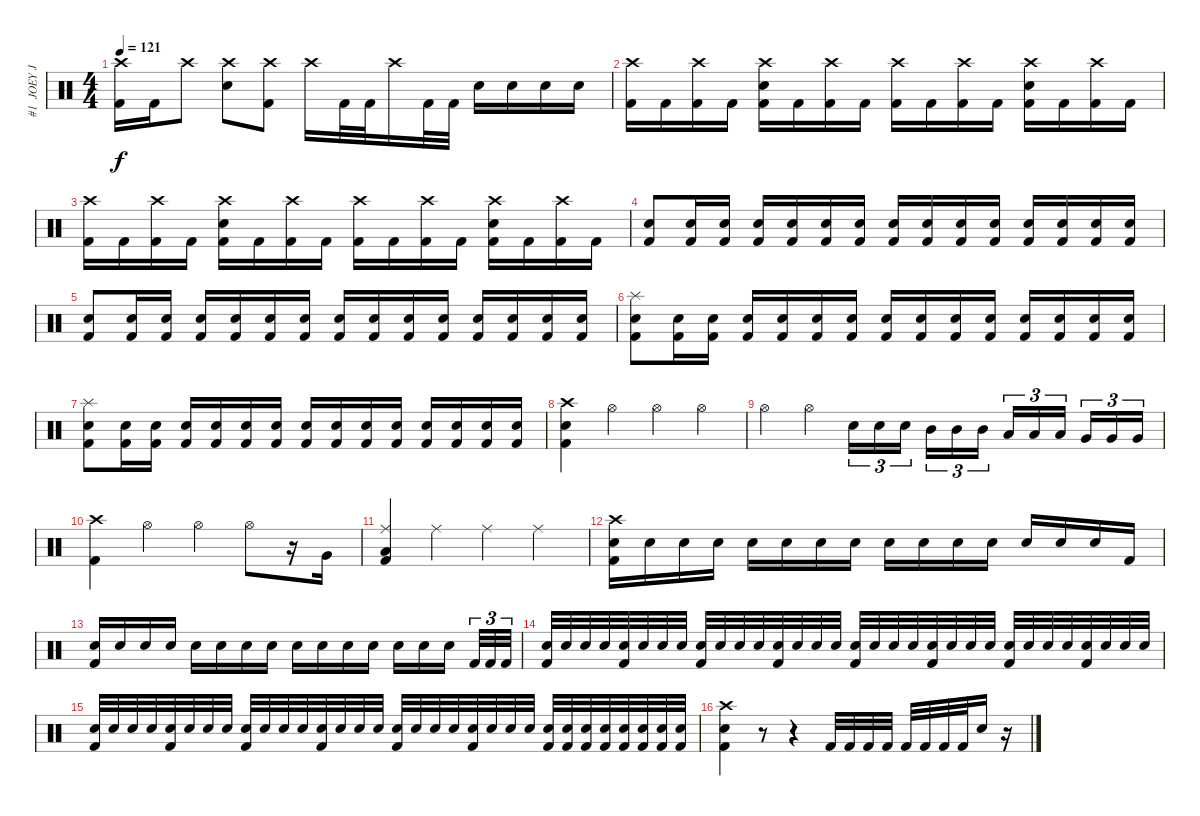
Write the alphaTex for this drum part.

\track ("#1  JOEY JORDISON" "#1  JOEY J") {instrument percussion}
\staff {score}
\articulation defaults
\ts (4 4)
\tempo 121
\clef neutral
\ks c
("Crash high (hit)" "Kick (hit) 2").16{dy f} "Kick (hit) 2".16 "Crash high (hit)".8 ("Crash high (hit)" "Electric Snare (hit)").8 ("Crash high (hit)" "Kick (hit) 2").8 "Crash high (hit)".16 "Kick (hit) 2".32 "Kick (hit) 2".32 "Crash high (hit)".16 "Kick (hit) 2".32 "Kick (hit) 2".32 "Electric Snare (hit)".16 "Electric Snare (hit)".16 "Electric Snare (hit)".16 "Electric Snare (hit)".16 |
("Crash high (hit)" "Kick (hit) 2").16 "Kick (hit) 2".16 ("Crash high (hit)" "Kick (hit) 2").16 "Kick (hit) 2".16 ("Crash high (hit)" "Electric Snare (hit)" "Kick (hit) 2").16 "Kick (hit) 2".16 ("Crash high (hit)" "Kick (hit) 2").16 "Kick (hit) 2".16 ("Crash high (hit)" "Kick (hit) 2").16 "Kick (hit) 2".16 ("Crash high (hit)" "Kick (hit) 2").16 "Kick (hit) 2".16 ("Crash high (hit)" "Electric Snare (hit)" "Kick (hit) 2").16 "Kick (hit) 2".16 ("Crash high (hit)" "Kick (hit) 2").16 "Kick (hit) 2".16 |
("Crash high (hit)" "Kick (hit) 2").16 "Kick (hit) 2".16 ("Crash high (hit)" "Kick (hit) 2").16 "Kick (hit) 2".16 ("Crash high (hit)" "Electric Snare (hit)" "Kick (hit) 2").16 "Kick (hit) 2".16 ("Crash high (hit)" "Kick (hit) 2").16 "Kick (hit) 2".16 ("Crash high (hit)" "Kick (hit) 2").16 "Kick (hit) 2".16 ("Crash high (hit)" "Kick (hit) 2").16 "Kick (hit) 2".16 ("Crash high (hit)" "Electric Snare (hit)" "Kick (hit) 2").16 "Kick (hit) 2".16 ("Crash high (hit)" "Kick (hit) 2").16 "Kick (hit) 2".16 |
("Electric Snare (hit)" "Kick (hit) 2").8 ("Electric Snare (hit)" "Kick (hit) 2").16 ("Electric Snare (hit)" "Kick (hit) 2").16 ("Electric Snare (hit)" "Kick (hit) 2").16 ("Electric Snare (hit)" "Kick (hit) 2").16 ("Electric Snare (hit)" "Kick (hit) 2").16 ("Electric Snare (hit)" "Kick (hit) 2").16 ("Electric Snare (hit)" "Kick (hit) 2").16 ("Electric Snare (hit)" "Kick (hit) 2").16 ("Electric Snare (hit)" "Kick (hit) 2").16 ("Electric Snare (hit)" "Kick (hit) 2").16 ("Electric Snare (hit)" "Kick (hit) 2").16 ("Electric Snare (hit)" "Kick (hit) 2").16 ("Electric Snare (hit)" "Kick (hit) 2").16 ("Electric Snare (hit)" "Kick (hit) 2").16 |
("Electric Snare (hit)" "Kick (hit) 2").8 ("Electric Snare (hit)" "Kick (hit) 2").16 ("Electric Snare (hit)" "Kick (hit) 2").16 ("Electric Snare (hit)" "Kick (hit) 2").16 ("Electric Snare (hit)" "Kick (hit) 2").16 ("Electric Snare (hit)" "Kick (hit) 2").16 ("Electric Snare (hit)" "Kick (hit) 2").16 ("Electric Snare (hit)" "Kick (hit) 2").16 ("Electric Snare (hit)" "Kick (hit) 2").16 ("Electric Snare (hit)" "Kick (hit) 2").16 ("Electric Snare (hit)" "Kick (hit) 2").16 ("Electric Snare (hit)" "Kick (hit) 2").16 ("Electric Snare (hit)" "Kick (hit) 2").16 ("Electric Snare (hit)" "Kick (hit) 2").16 ("Electric Snare (hit)" "Kick (hit) 2").16 |
("Splash (hit)" "Electric Snare (hit)" "Kick (hit) 2").8 ("Electric Snare (hit)" "Kick (hit) 2").16 ("Electric Snare (hit)" "Kick (hit) 2").16 ("Electric Snare (hit)" "Kick (hit) 2").16 ("Electric Snare (hit)" "Kick (hit) 2").16 ("Electric Snare (hit)" "Kick (hit) 2").16 ("Electric Snare (hit)" "Kick (hit) 2").16 ("Electric Snare (hit)" "Kick (hit) 2").16 ("Electric Snare (hit)" "Kick (hit) 2").16 ("Electric Snare (hit)" "Kick (hit) 2").16 ("Electric Snare (hit)" "Kick (hit) 2").16 ("Electric Snare (hit)" "Kick (hit) 2").16 ("Electric Snare (hit)" "Kick (hit) 2").16 ("Electric Snare (hit)" "Kick (hit) 2").16 ("Electric Snare (hit)" "Kick (hit) 2").16 |
("Splash (hit)" "Electric Snare (hit)" "Kick (hit) 2").8 ("Electric Snare (hit)" "Kick (hit) 2").16 ("Electric Snare (hit)" "Kick (hit) 2").16 ("Electric Snare (hit)" "Kick (hit) 2").16 ("Electric Snare (hit)" "Kick (hit) 2").16 ("Electric Snare (hit)" "Kick (hit) 2").16 ("Electric Snare (hit)" "Kick (hit) 2").16 ("Electric Snare (hit)" "Kick (hit) 2").16 ("Electric Snare (hit)" "Kick (hit) 2").16 ("Electric Snare (hit)" "Kick (hit) 2").16 ("Electric Snare (hit)" "Kick (hit) 2").16 ("Electric Snare (hit)" "Kick (hit) 2").16 ("Electric Snare (hit)" "Kick (hit) 2").16 ("Electric Snare (hit)" "Kick (hit) 2").16 ("Electric Snare (hit)" "Kick (hit) 2").16 |
\section ("" "")
("Crash high (hit)" "Electric Snare (hit)" "Kick (hit) 2").4 "Hi-Hat (open)".4 "Hi-Hat (open)".4 "Hi-Hat (open)".4 |
"Hi-Hat (open)".4 "Hi-Hat (open)".4 "Electric Snare (hit)".16{tu (3 2)} "Electric Snare (hit)".16{tu (3 2)} "Electric Snare (hit)".16{tu (3 2)} "Mid Tom (hit)".16{tu (3 2)} "Mid Tom (hit)".16{tu (3 2)} "Mid Tom (hit)".16{tu (3 2)} "Low Tom (hit)".16{tu (3 2)} "Low Tom (hit)".16{tu (3 2)} "Low Tom (hit)".16{tu (3 2)} "Very Low Tom (hit)".16{tu (3 2)} "Very Low Tom (hit)".16{tu (3 2)} "Very Low Tom (hit)".16{tu (3 2)} |
("Crash high (hit)" "Kick (hit) 2").4 "Hi-Hat (open)".4 "Hi-Hat (open)".4 "Hi-Hat (open)".8 r.16 "Very Low Tom (hit)".16 |
("Ride (middle)" "Low Floor Tom (hit)" "Kick (hit) 2").4 "Ride (middle)".4 "Ride (middle)".4 "Ride (middle)".4 |
("Crash high (hit)" "Electric Snare (hit)" "Kick (hit) 2").16 "Electric Snare (hit)".16 "Electric Snare (hit)".16 "Electric Snare (hit)".16 "Electric Snare (hit)".16 "Electric Snare (hit)".16 "Electric Snare (hit)".16 "Electric Snare (hit)".16 "Electric Snare (hit)".16 "Electric Snare (hit)".16 "Electric Snare (hit)".16 "Electric Snare (hit)".16 "Electric Snare (hit)".16 "Electric Snare (hit)".16 "Electric Snare (hit)".16 "Kick (hit) 2".16 |
("Electric Snare (hit)" "Kick (hit) 2").16 "Electric Snare (hit)".16 "Electric Snare (hit)".16 "Electric Snare (hit)".16 "Electric Snare (hit)".16 "Electric Snare (hit)".16 "Electric Snare (hit)".16 "Electric Snare (hit)".16 "Electric Snare (hit)".16 "Electric Snare (hit)".16 "Electric Snare (hit)".16 "Electric Snare (hit)".16 "Electric Snare (hit)".16 "Electric Snare (hit)".16 "Electric Snare (hit)".16 "Kick (hit) 2".32{tu (3 2)} "Kick (hit) 2".32{tu (3 2)} "Kick (hit) 2".32{tu (3 2)} |
("Electric Snare (hit)" "Kick (hit) 2").32 "Electric Snare (hit)".32 "Electric Snare (hit)".32 "Electric Snare (hit)".32 ("Electric Snare (hit)" "Kick (hit) 2").32 "Electric Snare (hit)".32 "Electric Snare (hit)".32 "Electric Snare (hit)".32 ("Electric Snare (hit)" "Kick (hit) 2").32 "Electric Snare (hit)".32 "Electric Snare (hit)".32 "Electric Snare (hit)".32 ("Electric Snare (hit)" "Kick (hit) 2").32 "Electric Snare (hit)".32 "Electric Snare (hit)".32 "Electric Snare (hit)".32 ("Electric Snare (hit)" "Kick (hit) 2").32 "Electric Snare (hit)".32 "Electric Snare (hit)".32 "Electric Snare (hit)".32 ("Electric Snare (hit)" "Kick (hit) 2").32 "Electric Snare (hit)".32 "Electric Snare (hit)".32 "Electric Snare (hit)".32 ("Electric Snare (hit)" "Kick (hit) 2").32 "Electric Snare (hit)".32 "Electric Snare (hit)".32 "Electric Snare (hit)".32 ("Electric Snare (hit)" "Kick (hit) 2").32 "Electric Snare (hit)".32 "Electric Snare (hit)".32 "Electric Snare (hit)".32 |
("Electric Snare (hit)" "Kick (hit) 2").32 "Electric Snare (hit)".32 "Electric Snare (hit)".32 "Electric Snare (hit)".32 ("Electric Snare (hit)" "Kick (hit) 2").32 "Electric Snare (hit)".32 "Electric Snare (hit)".32 "Electric Snare (hit)".32 ("Electric Snare (hit)" "Kick (hit) 2").32 "Electric Snare (hit)".32 "Electric Snare (hit)".32 "Electric Snare (hit)".32 ("Electric Snare (hit)" "Kick (hit) 2").32 "Electric Snare (hit)".32 "Electric Snare (hit)".32 "Electric Snare (hit)".32 ("Electric Snare (hit)" "Kick (hit) 2").32 "Electric Snare (hit)".32 "Electric Snare (hit)".32 "Electric Snare (hit)".32 ("Electric Snare (hit)" "Kick (hit) 2").32 "Electric Snare (hit)".32 "Electric Snare (hit)".32 "Electric Snare (hit)".32 ("Electric Snare (hit)" "Kick (hit) 2").32 ("Electric Snare (hit)" "Kick (hit) 2").32 ("Electric Snare (hit)" "Kick (hit) 2").32 ("Electric Snare (hit)" "Kick (hit) 2").32 ("Electric Snare (hit)" "Kick (hit) 2").32 ("Electric Snare (hit)" "Kick (hit) 2").32 ("Electric Snare (hit)" "Kick (hit) 2").32 ("Electric Snare (hit)" "Kick (hit) 2").32 |
("Crash high (hit)" "Electric Snare (hit)" "Kick (hit) 2").4 r.8 r.4 "Kick (hit) 2".32 "Kick (hit) 2".32 "Kick (hit) 2".32 "Kick (hit) 2".32 "Kick (hit) 2".32 "Kick (hit) 2".32 "Kick (hit) 2".32 "Kick (hit) 2".32 "Electric Snare (hit)".16 r.16
